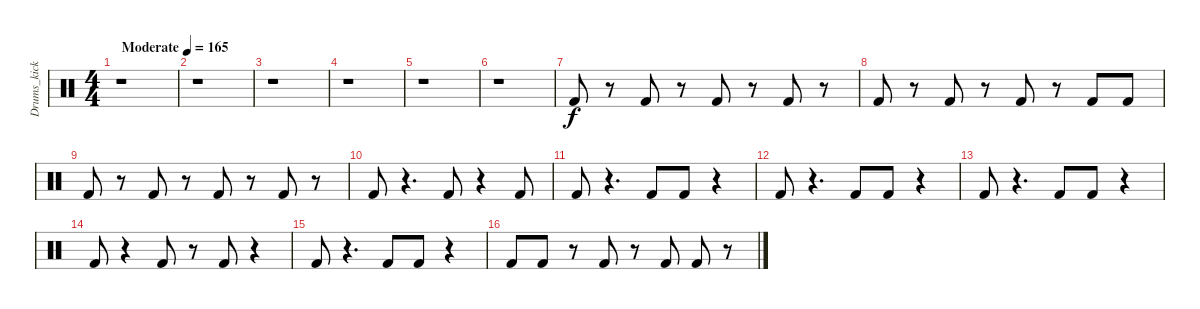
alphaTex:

\track ("Drums_kick" "Drums_kick") {instrument percussion}
\staff {score}
\articulation defaults
\ts (4 4)
\tempo (165 "Moderate")
\clef neutral
\ks c
r.1{dy f} |
r.1 |
r.1 |
r.1 |
r.1 |
r.1 |
"Kick (hit) 2".8 r.8 "Kick (hit) 2".8 r.8 "Kick (hit) 2".8 r.8 "Kick (hit) 2".8 r.8 |
"Kick (hit) 2".8 r.8 "Kick (hit) 2".8 r.8 "Kick (hit) 2".8 r.8 "Kick (hit) 2".8 "Kick (hit) 2".8 |
"Kick (hit) 2".8 r.8 "Kick (hit) 2".8 r.8 "Kick (hit) 2".8 r.8 "Kick (hit) 2".8 r.8 |
"Kick (hit) 2".8 r.4{d} "Kick (hit) 2".8 r.4 "Kick (hit) 2".8 |
"Kick (hit) 2".8 r.4{d} "Kick (hit) 2".8 "Kick (hit) 2".8 r.4 |
"Kick (hit) 2".8 r.4{d} "Kick (hit) 2".8 "Kick (hit) 2".8 r.4 |
"Kick (hit) 2".8 r.4{d} "Kick (hit) 2".8 "Kick (hit) 2".8 r.4 |
"Kick (hit) 2".8 r.4 "Kick (hit) 2".8 r.8 "Kick (hit) 2".8 r.4 |
"Kick (hit) 2".8 r.4{d} "Kick (hit) 2".8 "Kick (hit) 2".8 r.4 |
"Kick (hit) 2".8 "Kick (hit) 2".8 r.8 "Kick (hit) 2".8 r.8 "Kick (hit) 2".8 "Kick (hit) 2".8 r.8
